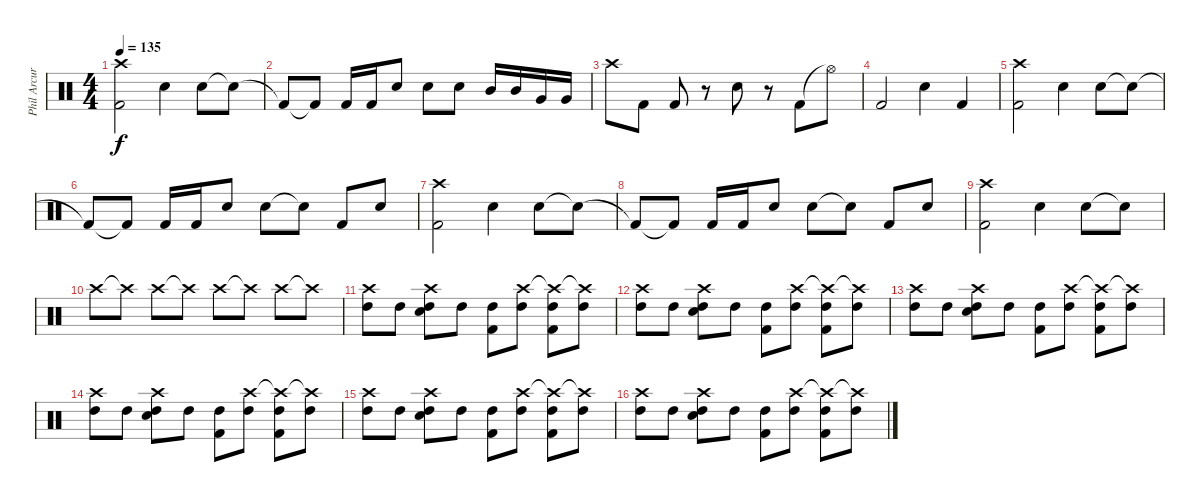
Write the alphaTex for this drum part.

\track ("Phil Arcuri drums" "Phil Arcur") {instrument percussion}
\staff {score}
\articulation defaults
\ts (4 4)
\tempo 135
\clef neutral
\ks c
("Kick (hit) 2" "Crash high (hit)").2{dy f} "Electric Snare (hit)".4 "Snare (hit) 2".8 "Snare (hit)"{t}.8 |
"Kick (hit) 2"{t}.8 "Kick (hit) 2"{t}.8 "Kick (hit) 2".16 "Kick (hit) 2".16 "Snare (hit) 2".8 "Electric Snare (hit)".8 "Electric Snare (hit)".8 "Mid Tom (hit)".16 "Mid Tom (hit)".16 "Very Low Tom (hit)".16 "Very Low Tom (hit)".16 |
"Crash high (hit)".8 "Kick (hit) 2".8 "Kick (hit) 2".8 r.8 "Snare (hit) 2".8 r.8 "Kick (hit) 2".8 "Hi-Hat (open)"{t}.8 |
"Kick (hit) 2".2 "Electric Snare (hit)".4 "Kick (hit) 2".4 |
("Kick (hit) 2" "Crash high (hit)").2 "Electric Snare (hit)".4 "Snare (hit) 2".8 "Snare (hit)"{t}.8 |
"Kick (hit) 2"{t}.8 "Kick (hit) 2"{t}.8 "Kick (hit) 2".16 "Kick (hit) 2".16 "Snare (hit) 2".8 "Electric Snare (hit)".8 "Snare (hit)"{t}.8 "Kick (hit) 2".8 "Electric Snare (hit)".8 |
("Kick (hit) 2" "Crash high (hit)").2 "Electric Snare (hit)".4 "Snare (hit) 2".8 "Snare (hit)"{t}.8 |
"Kick (hit) 2"{t}.8 "Kick (hit) 2"{t}.8 "Kick (hit) 2".16 "Kick (hit) 2".16 "Snare (hit) 2".8 "Electric Snare (hit)".8 "Snare (hit)"{t}.8 "Kick (hit) 2".8 "Electric Snare (hit)".8 |
("Kick (hit) 2" "Crash high (hit)").2 "Electric Snare (hit)".4 "Snare (hit) 2".8 "Snare (hit)"{t}.8 |
"Crash high (hit)".8 "Crash high (hit)"{t}.8 "Crash high (hit)".8 "Crash high (hit)"{t}.8 "Crash high (hit)".8 "Crash high (hit)"{t}.8 "Crash high (hit)".8 "Crash high (hit)"{t}.8 |
("Crash high (hit)" "High Tom (hit)").8 "High Tom (hit)".8 ("Crash high (hit)" "Snare (hit) 2" "High Tom (hit)").8 "High Tom (hit)".8 ("Kick (hit) 2" "High Tom (hit)").8 ("Crash high (hit)" "High Tom (hit)").8 ("Crash high (hit)"{t} "Kick (hit) 2" "High Tom (hit)").8 ("Crash high (hit)"{t} "High Tom (hit)").8 |
("Crash high (hit)" "High Tom (hit)").8 "High Tom (hit)".8 ("Crash high (hit)" "Snare (hit) 2" "High Tom (hit)").8 "High Tom (hit)".8 ("Kick (hit) 2" "High Tom (hit)").8 ("Crash high (hit)" "High Tom (hit)").8 ("Crash high (hit)"{t} "Kick (hit) 2" "High Tom (hit)").8 ("Crash high (hit)"{t} "High Tom (hit)").8 |
("Crash high (hit)" "High Tom (hit)").8 "High Tom (hit)".8 ("Crash high (hit)" "Snare (hit) 2" "High Tom (hit)").8 "High Tom (hit)".8 ("Kick (hit) 2" "High Tom (hit)").8 ("Crash high (hit)" "High Tom (hit)").8 ("Crash high (hit)"{t} "Kick (hit) 2" "High Tom (hit)").8 ("Crash high (hit)"{t} "High Tom (hit)").8 |
("Crash high (hit)" "High Tom (hit)").8 "High Tom (hit)".8 ("Crash high (hit)" "Snare (hit) 2" "High Tom (hit)").8 "High Tom (hit)".8 ("Kick (hit) 2" "High Tom (hit)").8 ("Crash high (hit)" "High Tom (hit)").8 ("Crash high (hit)"{t} "Kick (hit) 2" "High Tom (hit)").8 ("Crash high (hit)"{t} "High Tom (hit)").8 |
("Crash high (hit)" "High Tom (hit)").8 "High Tom (hit)".8 ("Crash high (hit)" "Snare (hit) 2" "High Tom (hit)").8 "High Tom (hit)".8 ("Kick (hit) 2" "High Tom (hit)").8 ("Crash high (hit)" "High Tom (hit)").8 ("Crash high (hit)"{t} "Kick (hit) 2" "High Tom (hit)").8 ("Crash high (hit)"{t} "High Tom (hit)").8 |
("Crash high (hit)" "High Tom (hit)").8 "High Tom (hit)".8 ("Crash high (hit)" "Snare (hit) 2" "High Tom (hit)").8 "High Tom (hit)".8 ("Kick (hit) 2" "High Tom (hit)").8 ("Crash high (hit)" "High Tom (hit)").8 ("Crash high (hit)"{t} "Kick (hit) 2" "High Tom (hit)").8 ("Crash high (hit)"{t} "High Tom (hit)").8
